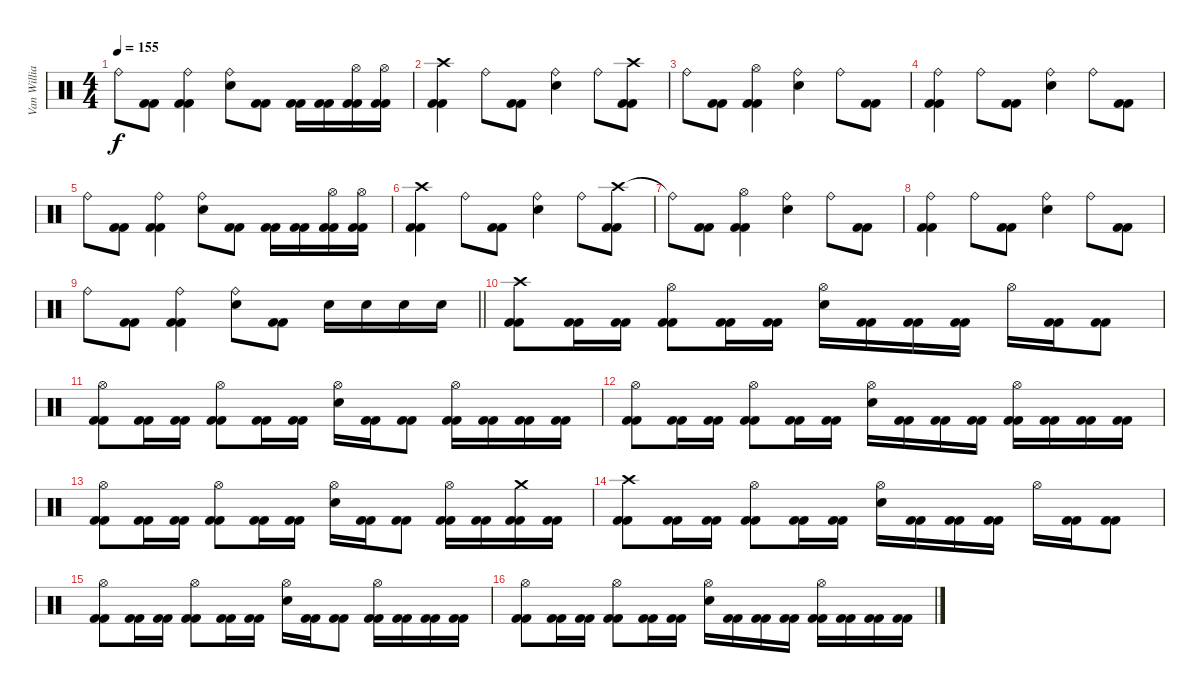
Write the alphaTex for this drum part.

\track ("Van Williams" "Van Willia") {instrument percussion}
\staff {score}
\articulation defaults
\ts (4 4)
\tempo 155
\clef neutral
\ks c "Ride (bell)".8{dy f}
("Kick (hit) 2" "Kick (hit) 2").8 ("Ride (bell)" "Kick (hit) 2" "Kick (hit) 2").4 ("Ride (bell)" "Electric Snare (hit)").8 ("Kick (hit) 2" "Kick (hit) 2").8 ("Kick (hit) 2" "Kick (hit) 2").16 ("Kick (hit) 2" "Kick (hit) 2").16 ("Hi-Hat (open)" "Kick (hit) 2" "Kick (hit) 2").16 ("Hi-Hat (open)" "Kick (hit) 2" "Kick (hit) 2").16 |
("Crash high (hit)" "Kick (hit) 2" "Kick (hit) 2").4 "Ride (bell)".8 ("Kick (hit) 2" "Kick (hit) 2").8 ("Ride (bell)" "Electric Snare (hit)").4 "Ride (bell)".8 ("Crash high (hit)" "Kick (hit) 2" "Kick (hit) 2").8 |
"Ride (bell)".8 ("Kick (hit) 2" "Kick (hit) 2").8 ("Hi-Hat (open)" "Kick (hit) 2" "Kick (hit) 2").4 ("Ride (bell)" "Electric Snare (hit)").4 "Ride (bell)".8 ("Kick (hit) 2" "Kick (hit) 2").8 |
("Ride (bell)" "Kick (hit) 2" "Kick (hit) 2").4 "Ride (bell)".8 ("Kick (hit) 2" "Kick (hit) 2").8 ("Ride (bell)" "Electric Snare (hit)").4 "Ride (bell)".8 ("Kick (hit) 2" "Kick (hit) 2").8 |
"Ride (bell)".8 ("Kick (hit) 2" "Kick (hit) 2").8 ("Ride (bell)" "Kick (hit) 2" "Kick (hit) 2").4 ("Ride (bell)" "Electric Snare (hit)").8 ("Kick (hit) 2" "Kick (hit) 2").8 ("Kick (hit) 2" "Kick (hit) 2").16 ("Kick (hit) 2" "Kick (hit) 2").16 ("Hi-Hat (open)" "Kick (hit) 2" "Kick (hit) 2").16 ("Hi-Hat (open)" "Kick (hit) 2" "Kick (hit) 2").16 |
("Crash high (hit)" "Kick (hit) 2" "Kick (hit) 2").4 "Ride (bell)".8 ("Kick (hit) 2" "Kick (hit) 2").8 ("Ride (bell)" "Electric Snare (hit)").4 "Ride (bell)".8 ("Crash high (hit)" "Kick (hit) 2" "Kick (hit) 2").8 |
"Ride (bell)"{t}.8 ("Kick (hit) 2" "Kick (hit) 2").8 ("Hi-Hat (open)" "Kick (hit) 2" "Kick (hit) 2").4 ("Ride (bell)" "Electric Snare (hit)").4 "Ride (bell)".8 ("Kick (hit) 2" "Kick (hit) 2").8 |
("Ride (bell)" "Kick (hit) 2" "Kick (hit) 2").4 "Ride (bell)".8 ("Kick (hit) 2" "Kick (hit) 2").8 ("Ride (bell)" "Electric Snare (hit)").4 "Ride (bell)".8 ("Kick (hit) 2" "Kick (hit) 2").8 |
\barLineRight lightlight "Ride (bell)".8
("Kick (hit) 2" "Kick (hit) 2").8 ("Ride (bell)" "Kick (hit) 2" "Kick (hit) 2").4 ("Ride (bell)" "Electric Snare (hit)").8 ("Kick (hit) 2" "Kick (hit) 2").8 "Electric Snare (hit)".16 "Electric Snare (hit)".16 "Electric Snare (hit)".16 "Electric Snare (hit)".16 |
("Crash high (hit)" "Kick (hit) 2" "Kick (hit) 2").8 ("Kick (hit) 2" "Kick (hit) 2").16 ("Kick (hit) 2" "Kick (hit) 2").16 ("Hi-Hat (open)" "Kick (hit) 2" "Kick (hit) 2").8 ("Kick (hit) 2" "Kick (hit) 2").16 ("Kick (hit) 2" "Kick (hit) 2").16 ("Hi-Hat (open)" "Electric Snare (hit)").16 ("Kick (hit) 2" "Kick (hit) 2").16 ("Kick (hit) 2" "Kick (hit) 2").16 ("Kick (hit) 2" "Kick (hit) 2").16 "Hi-Hat (open)".16 ("Kick (hit) 2" "Kick (hit) 2").16 ("Kick (hit) 2" "Kick (hit) 2").8 |
("Hi-Hat (open)" "Kick (hit) 2" "Kick (hit) 2").8 ("Kick (hit) 2" "Kick (hit) 2").16 ("Kick (hit) 2" "Kick (hit) 2").16 ("Hi-Hat (open)" "Kick (hit) 2" "Kick (hit) 2").8 ("Kick (hit) 2" "Kick (hit) 2").16 ("Kick (hit) 2" "Kick (hit) 2").16 ("Hi-Hat (open)" "Electric Snare (hit)").16 ("Kick (hit) 2" "Kick (hit) 2").16 ("Kick (hit) 2" "Kick (hit) 2").8 ("Hi-Hat (open)" "Kick (hit) 2" "Kick (hit) 2").16 ("Kick (hit) 2" "Kick (hit) 2").16 ("Kick (hit) 2" "Kick (hit) 2").16 ("Kick (hit) 2" "Kick (hit) 2").16 |
("Hi-Hat (open)" "Kick (hit) 2" "Kick (hit) 2").8 ("Kick (hit) 2" "Kick (hit) 2").16 ("Kick (hit) 2" "Kick (hit) 2").16 ("Hi-Hat (open)" "Kick (hit) 2" "Kick (hit) 2").8 ("Kick (hit) 2" "Kick (hit) 2").16 ("Kick (hit) 2" "Kick (hit) 2").16 ("Hi-Hat (open)" "Electric Snare (hit)").16 ("Kick (hit) 2" "Kick (hit) 2").16 ("Kick (hit) 2" "Kick (hit) 2").16 ("Kick (hit) 2" "Kick (hit) 2").16 ("Hi-Hat (open)" "Kick (hit) 2" "Kick (hit) 2").16 ("Kick (hit) 2" "Kick (hit) 2").16 ("Kick (hit) 2" "Kick (hit) 2").16 ("Kick (hit) 2" "Kick (hit) 2").16 |
("Hi-Hat (open)" "Kick (hit) 2" "Kick (hit) 2").8 ("Kick (hit) 2" "Kick (hit) 2").16 ("Kick (hit) 2" "Kick (hit) 2").16 ("Hi-Hat (open)" "Kick (hit) 2" "Kick (hit) 2").8 ("Kick (hit) 2" "Kick (hit) 2").16 ("Kick (hit) 2" "Kick (hit) 2").16 ("Hi-Hat (open)" "Electric Snare (hit)").16 ("Kick (hit) 2" "Kick (hit) 2").16 ("Kick (hit) 2" "Kick (hit) 2").8 ("Hi-Hat (open)" "Kick (hit) 2" "Kick (hit) 2").16 ("Kick (hit) 2" "Kick (hit) 2").16 ("Crash medium (hit)" "Kick (hit) 2" "Kick (hit) 2").16 ("Kick (hit) 2" "Kick (hit) 2").16 |
("Crash high (hit)" "Kick (hit) 2" "Kick (hit) 2").8 ("Kick (hit) 2" "Kick (hit) 2").16 ("Kick (hit) 2" "Kick (hit) 2").16 ("Hi-Hat (open)" "Kick (hit) 2" "Kick (hit) 2").8 ("Kick (hit) 2" "Kick (hit) 2").16 ("Kick (hit) 2" "Kick (hit) 2").16 ("Hi-Hat (open)" "Electric Snare (hit)").16 ("Kick (hit) 2" "Kick (hit) 2").16 ("Kick (hit) 2" "Kick (hit) 2").16 ("Kick (hit) 2" "Kick (hit) 2").16 "Hi-Hat (open)".16 ("Kick (hit) 2" "Kick (hit) 2").16 ("Kick (hit) 2" "Kick (hit) 2").8 |
("Hi-Hat (open)" "Kick (hit) 2" "Kick (hit) 2").8 ("Kick (hit) 2" "Kick (hit) 2").16 ("Kick (hit) 2" "Kick (hit) 2").16 ("Hi-Hat (open)" "Kick (hit) 2" "Kick (hit) 2").8 ("Kick (hit) 2" "Kick (hit) 2").16 ("Kick (hit) 2" "Kick (hit) 2").16 ("Hi-Hat (open)" "Electric Snare (hit)").16 ("Kick (hit) 2" "Kick (hit) 2").16 ("Kick (hit) 2" "Kick (hit) 2").8 ("Hi-Hat (open)" "Kick (hit) 2" "Kick (hit) 2").16 ("Kick (hit) 2" "Kick (hit) 2").16 ("Kick (hit) 2" "Kick (hit) 2").16 ("Kick (hit) 2" "Kick (hit) 2").16 |
("Hi-Hat (open)" "Kick (hit) 2" "Kick (hit) 2").8 ("Kick (hit) 2" "Kick (hit) 2").16 ("Kick (hit) 2" "Kick (hit) 2").16 ("Hi-Hat (open)" "Kick (hit) 2" "Kick (hit) 2").8 ("Kick (hit) 2" "Kick (hit) 2").16 ("Kick (hit) 2" "Kick (hit) 2").16 ("Hi-Hat (open)" "Electric Snare (hit)").16 ("Kick (hit) 2" "Kick (hit) 2").16 ("Kick (hit) 2" "Kick (hit) 2").16 ("Kick (hit) 2" "Kick (hit) 2").16 ("Hi-Hat (open)" "Kick (hit) 2" "Kick (hit) 2").16 ("Kick (hit) 2" "Kick (hit) 2").16 ("Kick (hit) 2" "Kick (hit) 2").16 ("Kick (hit) 2" "Kick (hit) 2").16
